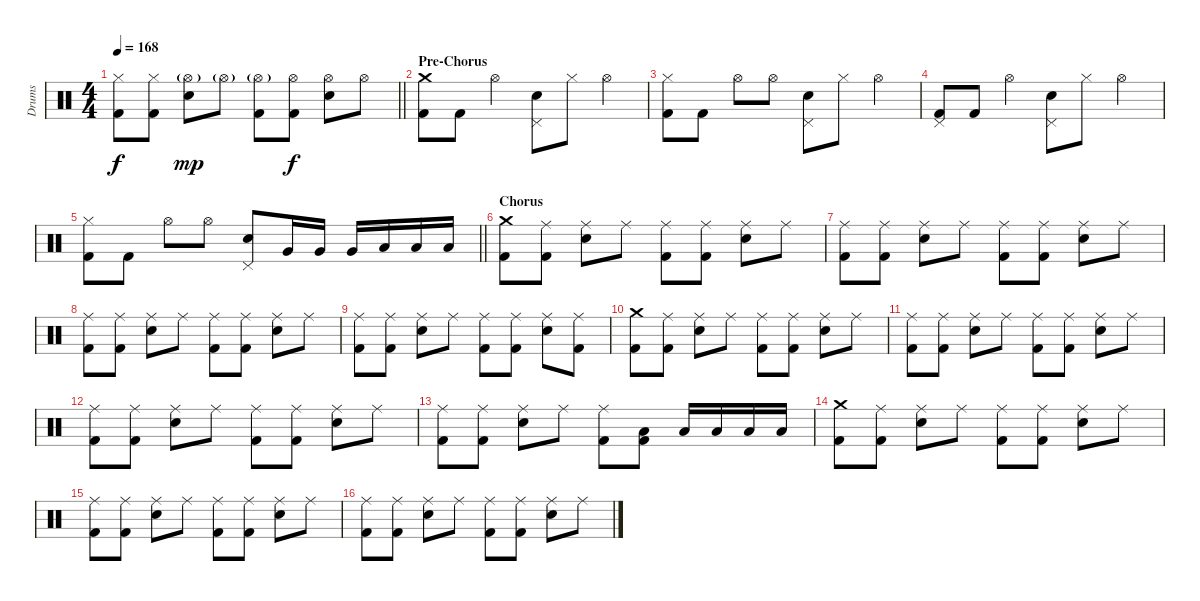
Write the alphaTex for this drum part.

\track ("Drums" "Drums") {instrument percussion}
\staff {score}
\articulation defaults
\ts (4 4)
\tempo 168
\clef neutral
\barLineRight lightlight
\ks c
("Hi-Hat (closed)" "Kick (hit) 2").8{dy f} ("Hi-Hat (closed)" "Kick (hit) 2").8 ("Hi-Hat (open)"{g} "Electric Snare (hit)").8{dy mp} "Hi-Hat (open)"{g}.8 ("Hi-Hat (open)"{g} "Kick (hit) 2").8 ("Hi-Hat (open)" "Kick (hit) 2").8{dy f} ("Hi-Hat (open)" "Electric Snare (hit)").8 "Hi-Hat (open)".8 |
\section ("" "Pre-Chorus")
("Crash medium (hit)" "Kick (hit) 2").8 "Kick (hit) 2".8 "Hi-Hat (open)".4 ("Pedal Hi-Hat (hit)" "Electric Snare (hit)").8 "Hi-Hat (closed)".8 "Hi-Hat (open)".4 |
("Hi-Hat (closed)" "Kick (hit) 2").8 "Kick (hit) 2".8 "Hi-Hat (open)".8 "Hi-Hat (open)".8 ("Pedal Hi-Hat (hit)" "Electric Snare (hit)").8 "Hi-Hat (closed)".8 "Hi-Hat (open)".4 |
("Pedal Hi-Hat (hit)" "Kick (hit) 2").8 "Kick (hit) 2".8 "Hi-Hat (open)".4 ("Pedal Hi-Hat (hit)" "Electric Snare (hit)").8 "Hi-Hat (closed)".8 "Hi-Hat (open)".4 |
\barLineRight lightlight
("Hi-Hat (closed)" "Kick (hit) 2").8 "Kick (hit) 2".8 "Hi-Hat (open)".8 "Hi-Hat (open)".8 ("Pedal Hi-Hat (hit)" "Electric Snare (hit)").8 "Very Low Tom (hit)".16 "Very Low Tom (hit)".16 "Very Low Tom (hit)".16 "Low Floor Tom (hit)".16 "Low Floor Tom (hit)".16 "Low Tom (hit)".16 |
\section ("" "Chorus")
("Crash medium (hit)" "Kick (hit) 2").8 ("Ride (middle)" "Kick (hit) 2").8 ("Ride (middle)" "Electric Snare (hit)").8 "Ride (middle)".8 ("Ride (middle)" "Kick (hit) 2").8 ("Ride (middle)" "Kick (hit) 2").8 ("Ride (middle)" "Electric Snare (hit)").8 "Ride (middle)".8 |
("Ride (middle)" "Kick (hit) 2").8 ("Ride (middle)" "Kick (hit) 2").8 ("Ride (middle)" "Electric Snare (hit)").8 "Ride (middle)".8 ("Ride (middle)" "Kick (hit) 2").8 ("Ride (middle)" "Kick (hit) 2").8 ("Ride (middle)" "Electric Snare (hit)").8 "Ride (middle)".8 |
("Ride (middle)" "Kick (hit) 2").8 ("Ride (middle)" "Kick (hit) 2").8 ("Ride (middle)" "Electric Snare (hit)").8 "Ride (middle)".8 ("Ride (middle)" "Kick (hit) 2").8 ("Ride (middle)" "Kick (hit) 2").8 ("Ride (middle)" "Electric Snare (hit)").8 "Ride (middle)".8 |
("Ride (middle)" "Kick (hit) 2").8 ("Ride (middle)" "Kick (hit) 2").8 ("Ride (middle)" "Electric Snare (hit)").8 "Ride (middle)".8 ("Ride (middle)" "Kick (hit) 2").8 ("Ride (middle)" "Kick (hit) 2").8 ("Ride (middle)" "Electric Snare (hit)").8 ("Ride (middle)" "Kick (hit) 2").8 |
("Crash medium (hit)" "Kick (hit) 2").8 ("Ride (middle)" "Kick (hit) 2").8 ("Ride (middle)" "Electric Snare (hit)").8 "Ride (middle)".8 ("Ride (middle)" "Kick (hit) 2").8 ("Ride (middle)" "Kick (hit) 2").8 ("Ride (middle)" "Electric Snare (hit)").8 "Ride (middle)".8 |
("Ride (middle)" "Kick (hit) 2").8 ("Ride (middle)" "Kick (hit) 2").8 ("Ride (middle)" "Electric Snare (hit)").8 "Ride (middle)".8 ("Ride (middle)" "Kick (hit) 2").8 ("Ride (middle)" "Kick (hit) 2").8 ("Ride (middle)" "Electric Snare (hit)").8 "Ride (middle)".8 |
("Ride (middle)" "Kick (hit) 2").8 ("Ride (middle)" "Kick (hit) 2").8 ("Ride (middle)" "Electric Snare (hit)").8 "Ride (middle)".8 ("Ride (middle)" "Kick (hit) 2").8 ("Ride (middle)" "Kick (hit) 2").8 ("Ride (middle)" "Electric Snare (hit)").8 "Ride (middle)".8 |
("Ride (middle)" "Kick (hit) 2").8 ("Ride (middle)" "Kick (hit) 2").8 ("Ride (middle)" "Electric Snare (hit)").8 "Ride (middle)".8 ("Ride (middle)" "Kick (hit) 2").8 ("Low Floor Tom (hit)" "Kick (hit) 2").8 "Low Floor Tom (hit)".16 "Low Floor Tom (hit)".16 "Low Floor Tom (hit)".16 "Low Floor Tom (hit)".16 |
("Crash medium (hit)" "Kick (hit) 2").8 ("Ride (middle)" "Kick (hit) 2").8 ("Ride (middle)" "Electric Snare (hit)").8 "Ride (middle)".8 ("Ride (middle)" "Kick (hit) 2").8 ("Ride (middle)" "Kick (hit) 2").8 ("Ride (middle)" "Electric Snare (hit)").8 "Ride (middle)".8 |
("Ride (middle)" "Kick (hit) 2").8 ("Ride (middle)" "Kick (hit) 2").8 ("Ride (middle)" "Electric Snare (hit)").8 "Ride (middle)".8 ("Ride (middle)" "Kick (hit) 2").8 ("Ride (middle)" "Kick (hit) 2").8 ("Ride (middle)" "Electric Snare (hit)").8 "Ride (middle)".8 |
("Ride (middle)" "Kick (hit) 2").8 ("Ride (middle)" "Kick (hit) 2").8 ("Ride (middle)" "Electric Snare (hit)").8 "Ride (middle)".8 ("Ride (middle)" "Kick (hit) 2").8 ("Ride (middle)" "Kick (hit) 2").8 ("Ride (middle)" "Electric Snare (hit)").8 "Ride (middle)".8
